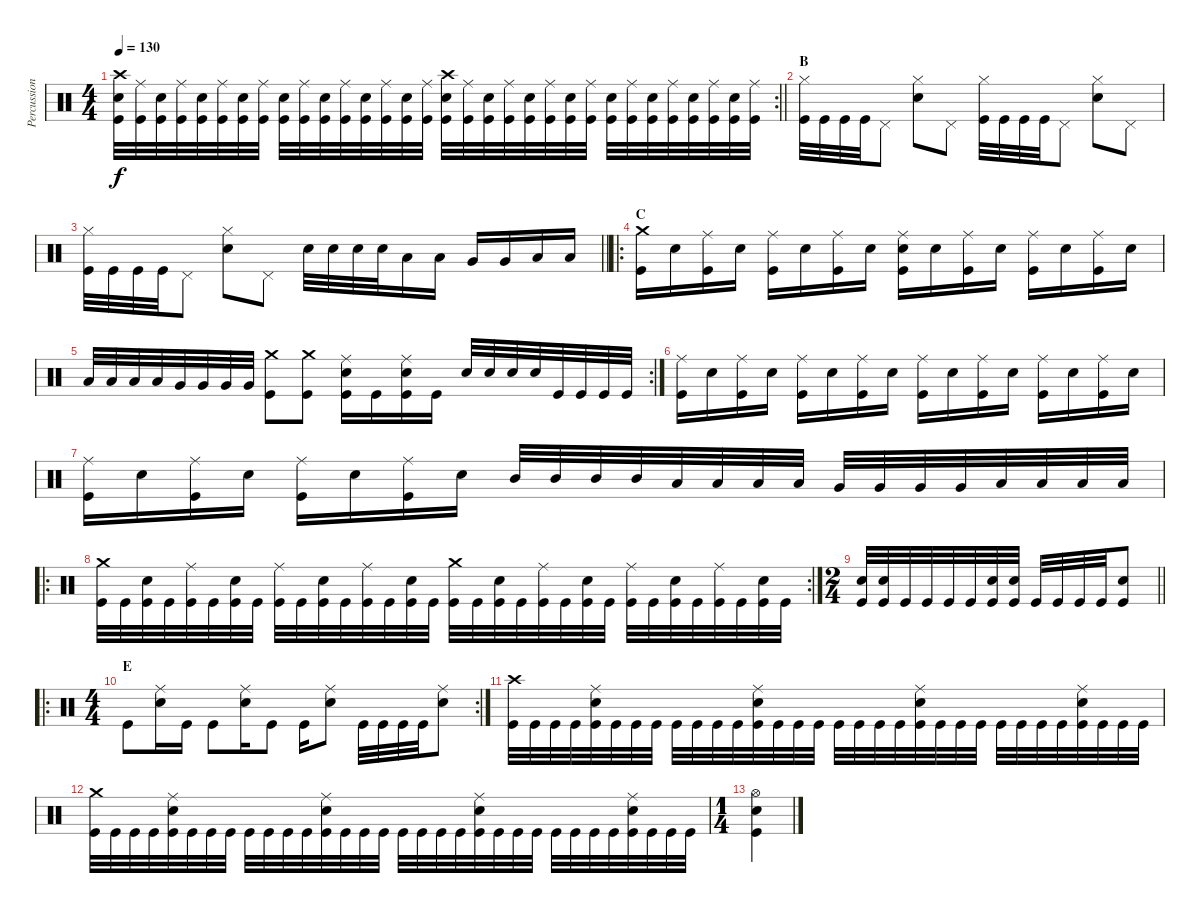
\track ("Percussion" "Percussion") {instrument percussion}
\staff {score}
\articulation defaults
\rc 2
\ts (4 4)
\tempo 130
\clef neutral
\barLineRight lightlight
\ks c
("Kick (hit)" "Crash high (hit)" "Snare (hit) 2").32{dy f} ("Kick (hit)" "Ride (middle)").32 ("Kick (hit)" "Snare (hit) 2").32 ("Kick (hit)" "Ride (middle)").32 ("Kick (hit)" "Snare (hit) 2").32 ("Kick (hit)" "Ride (middle)").32 ("Kick (hit)" "Snare (hit) 2").32 ("Kick (hit)" "Ride (middle)").32 ("Kick (hit)" "Snare (hit) 2").32 ("Kick (hit)" "Ride (middle)").32 ("Kick (hit)" "Snare (hit) 2").32 ("Kick (hit)" "Ride (middle)").32 ("Kick (hit)" "Snare (hit) 2").32 ("Kick (hit)" "Ride (middle)").32 ("Kick (hit)" "Snare (hit) 2").32 ("Kick (hit)" "Ride (middle)").32 ("Kick (hit)" "Crash high (hit)" "Snare (hit) 2").32 ("Kick (hit)" "Ride (middle)").32 ("Kick (hit)" "Snare (hit) 2").32 ("Kick (hit)" "Ride (middle)").32 ("Kick (hit)" "Snare (hit) 2").32 ("Kick (hit)" "Ride (middle)").32 ("Kick (hit)" "Snare (hit) 2").32 ("Kick (hit)" "Ride (middle)").32 ("Kick (hit)" "Snare (hit) 2").32 ("Kick (hit)" "Ride (middle)").32 ("Kick (hit)" "Snare (hit) 2").32 ("Kick (hit)" "Ride (middle)").32 ("Kick (hit)" "Snare (hit) 2").32 ("Kick (hit)" "Ride (middle)").32 ("Kick (hit)" "Snare (hit) 2").32 ("Kick (hit)" "Ride (middle)").32 |
\section ("" "B")
("Kick (hit)" "Hi-Hat (closed)").32 "Kick (hit)".32 "Kick (hit)".32 "Kick (hit)".32 "Pedal Hi-Hat (hit)".8 ("Snare (hit) 2" "Hi-Hat (closed)").8 "Pedal Hi-Hat (hit)".8 ("Kick (hit)" "Hi-Hat (closed)").32 "Kick (hit)".32 "Kick (hit)".32 "Kick (hit)".32 "Pedal Hi-Hat (hit)".8 ("Snare (hit) 2" "Hi-Hat (closed)").8 "Pedal Hi-Hat (hit)".8 |
\barLineRight lightlight
("Kick (hit)" "Hi-Hat (closed)").32 "Kick (hit)".32 "Kick (hit)".32 "Kick (hit)".32 "Pedal Hi-Hat (hit)".8 ("Snare (hit) 2" "Hi-Hat (closed)").8 "Pedal Hi-Hat (hit)".8 "Snare (hit) 2".32 "Snare (hit) 2".32 "Snare (hit) 2".32 "Snare (hit) 2".32 "Low Tom (hit)".16 "Low Tom (hit)".16 "Very Low Tom (hit)".16 "Very Low Tom (hit)".16 "Low Floor Tom (hit)".16 "Low Floor Tom (hit)".16 |
\ro
\section ("" "C")
("Kick (hit)" "Crash medium (hit)").16 "Snare (hit) 2".16 ("Kick (hit)" "Ride (middle)").16 "Snare (hit) 2".16 ("Kick (hit)" "Ride (middle)").16 "Snare (hit) 2".16 ("Kick (hit)" "Ride (middle)").16 "Snare (hit) 2".16 ("Kick (hit)" "Snare (hit) 2" "Ride (middle)").16 "Snare (hit) 2".16 ("Kick (hit)" "Ride (middle)").16 "Snare (hit) 2".16 ("Kick (hit)" "Ride (middle)").16 "Snare (hit) 2".16 ("Kick (hit)" "Ride (middle)").16 "Snare (hit) 2".16 |
\rc 2 "Low Tom (hit)".32 "Low Tom (hit)".32 "Low Tom (hit)".32 "Low Tom (hit)".32 "Very Low Tom (hit)".32 "Very Low Tom (hit)".32 "Very Low Tom (hit)".32 "Very Low Tom (hit)".32
("Kick (hit)" "Crash medium (hit)").8 ("Kick (hit)" "Crash medium (hit)").8 ("Kick (hit)" "Snare (hit) 2" "Ride (middle)").16 "Kick (hit)".16 ("Kick (hit)" "Snare (hit) 2" "Ride (middle)").16 "Kick (hit)".16 "Snare (hit) 2".32 "Snare (hit) 2".32 "Snare (hit) 2".32 "Snare (hit) 2".32 "Kick (hit)".32 "Kick (hit)".32 "Kick (hit)".32 "Kick (hit)".32 |
("Kick (hit)" "Ride (middle)").16 "Snare (hit) 2".16 ("Kick (hit)" "Ride (middle)").16 "Snare (hit) 2".16 ("Kick (hit)" "Ride (middle)").16 "Snare (hit) 2".16 ("Kick (hit)" "Ride (middle)").16 "Snare (hit) 2".16 ("Kick (hit)" "Ride (middle)").16 "Snare (hit) 2".16 ("Kick (hit)" "Ride (middle)").16 "Snare (hit) 2".16 ("Kick (hit)" "Ride (middle)").16 "Snare (hit) 2".16 ("Kick (hit)" "Ride (middle)").16 "Snare (hit) 2".16 |
("Kick (hit)" "Ride (middle)").16 "Snare (hit) 2".16 ("Kick (hit)" "Ride (middle)").16 "Snare (hit) 2".16 ("Kick (hit)" "Ride (middle)").16 "Snare (hit) 2".16 ("Kick (hit)" "Ride (middle)").16 "Snare (hit) 2".16 "Mid Tom (hit)".32 "Mid Tom (hit)".32 "Mid Tom (hit)".32 "Mid Tom (hit)".32 "Low Tom (hit)".32 "Low Tom (hit)".32 "Low Tom (hit)".32 "Low Tom (hit)".32 "Very Low Tom (hit)".32 "Very Low Tom (hit)".32 "Very Low Tom (hit)".32 "Very Low Tom (hit)".32 "Low Floor Tom (hit)".32 "Low Floor Tom (hit)".32 "Low Floor Tom (hit)".32 "Low Floor Tom (hit)".32 |
\ro
\rc 2
("Kick (hit)" "Crash medium (hit)").32 "Kick (hit)".32 ("Kick (hit)" "Snare (hit) 2").32 "Kick (hit)".32 ("Kick (hit)" "Ride (middle)").32 "Kick (hit)".32 ("Kick (hit)" "Snare (hit) 2").32 "Kick (hit)".32 ("Kick (hit)" "Ride (middle)").32 "Kick (hit)".32 ("Kick (hit)" "Snare (hit) 2").32 "Kick (hit)".32 ("Kick (hit)" "Ride (middle)").32 "Kick (hit)".32 ("Kick (hit)" "Snare (hit) 2").32 "Kick (hit)".32 ("Kick (hit)" "Crash medium (hit)").32 "Kick (hit)".32 ("Kick (hit)" "Snare (hit) 2").32 "Kick (hit)".32 ("Kick (hit)" "Ride (middle)").32 "Kick (hit)".32 ("Kick (hit)" "Snare (hit) 2").32 "Kick (hit)".32 ("Kick (hit)" "Ride (middle)").32 "Kick (hit)".32 ("Kick (hit)" "Snare (hit) 2").32 "Kick (hit)".32 ("Kick (hit)" "Ride (middle)").32 "Kick (hit)".32 ("Kick (hit)" "Snare (hit) 2").32 "Kick (hit)".32 |
\ts (2 4)
\barLineRight lightlight
("Kick (hit)" "Snare (hit) 2").32 ("Kick (hit)" "Snare (hit) 2").32 "Kick (hit)".32 "Kick (hit)".32 "Kick (hit)".32 "Kick (hit)".32 ("Kick (hit)" "Snare (hit) 2").32 ("Kick (hit)" "Snare (hit) 2").32 "Kick (hit)".32 "Kick (hit)".32 "Kick (hit)".32 "Kick (hit)".32 ("Kick (hit)" "Snare (hit) 2").8 |
\ro
\rc 2
\ts (4 4)
\section ("" "E")
"Kick (hit)".8 ("Ride (middle)" "Snare (hit) 2").16 "Kick (hit)".16 "Kick (hit)".8 ("Ride (middle)" "Snare (hit) 2").16 "Kick (hit)".8 "Kick (hit)".16 ("Ride (middle)" "Snare (hit) 2").8 "Kick (hit)".32 "Kick (hit)".32 "Kick (hit)".32 "Kick (hit)".32 ("Ride (middle)" "Snare (hit) 2").8 |
("Kick (hit)" "Crash high (hit)").32 "Kick (hit)".32 "Kick (hit)".32 "Kick (hit)".32 ("Kick (hit)" "Snare (hit) 2" "Ride (middle)").32 "Kick (hit)".32 "Kick (hit)".32 "Kick (hit)".32 "Kick (hit)".32 "Kick (hit)".32 "Kick (hit)".32 "Kick (hit)".32 ("Kick (hit)" "Snare (hit) 2" "Ride (middle)").32 "Kick (hit)".32 "Kick (hit)".32 "Kick (hit)".32 "Kick (hit)".32 "Kick (hit)".32 "Kick (hit)".32 "Kick (hit)".32 ("Kick (hit)" "Snare (hit) 2" "Ride (middle)").32 "Kick (hit)".32 "Kick (hit)".32 "Kick (hit)".32 "Kick (hit)".32 "Kick (hit)".32 "Kick (hit)".32 "Kick (hit)".32 ("Kick (hit)" "Snare (hit) 2" "Ride (middle)").32 "Kick (hit)".32 "Kick (hit)".32 "Kick (hit)".32 |
("Kick (hit)" "Crash medium (hit)").32 "Kick (hit)".32 "Kick (hit)".32 "Kick (hit)".32 ("Kick (hit)" "Snare (hit) 2" "Ride (middle)").32 "Kick (hit)".32 "Kick (hit)".32 "Kick (hit)".32 "Kick (hit)".32 "Kick (hit)".32 "Kick (hit)".32 "Kick (hit)".32 ("Kick (hit)" "Snare (hit) 2" "Ride (middle)").32 "Kick (hit)".32 "Kick (hit)".32 "Kick (hit)".32 "Kick (hit)".32 "Kick (hit)".32 "Kick (hit)".32 "Kick (hit)".32 ("Kick (hit)" "Snare (hit) 2" "Ride (middle)").32 "Kick (hit)".32 "Kick (hit)".32 "Kick (hit)".32 "Kick (hit)".32 "Kick (hit)".32 "Kick (hit)".32 "Kick (hit)".32 ("Kick (hit)" "Snare (hit) 2" "Ride (middle)").32 "Kick (hit)".32 "Kick (hit)".32 "Kick (hit)".32 |
\ts (1 4)
("Kick (hit)" "Snare (hit) 2" "Hi-Hat (open)").4
